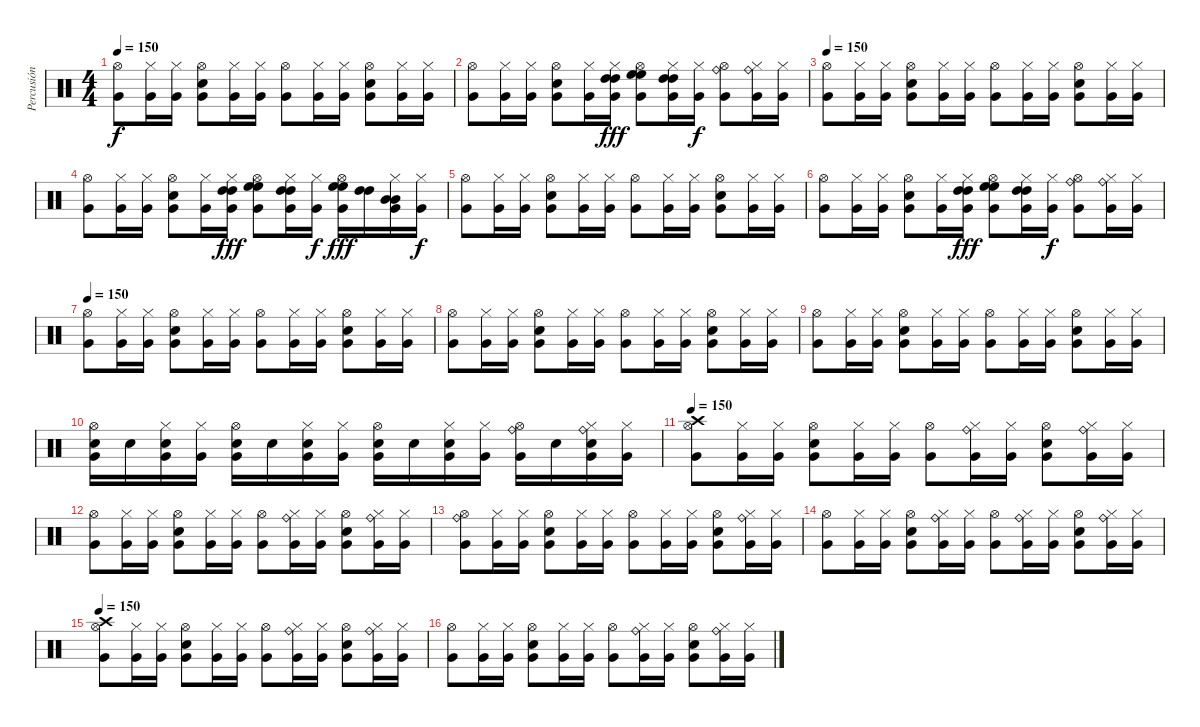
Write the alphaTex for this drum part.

\track ("Percusión" "Percusión") {instrument percussion}
\staff {score}
\articulation defaults
\ts (4 4)
\tempo 150
\clef neutral
\ks c
("Hi-Hat (open)" "Very Low Tom (hit)").8{dy f} ("Hi-Hat (closed)" "Very Low Tom (hit)").16 ("Hi-Hat (closed)" "Very Low Tom (hit)").16 ("Hi-Hat (open)" "Electric Snare (hit)" "Very Low Tom (hit)").8 ("Hi-Hat (closed)" "Very Low Tom (hit)").16 ("Hi-Hat (closed)" "Very Low Tom (hit)").16 ("Hi-Hat (open)" "Very Low Tom (hit)").8 ("Hi-Hat (closed)" "Very Low Tom (hit)").16 ("Hi-Hat (closed)" "Very Low Tom (hit)").16 ("Hi-Hat (open)" "Electric Snare (hit)" "Very Low Tom (hit)").8 ("Hi-Hat (closed)" "Very Low Tom (hit)").16 ("Hi-Hat (closed)" "Very Low Tom (hit)").16 |
("Hi-Hat (open)" "Very Low Tom (hit)").8 ("Hi-Hat (closed)" "Very Low Tom (hit)").16 ("Hi-Hat (closed)" "Very Low Tom (hit)").16 ("Hi-Hat (open)" "Electric Snare (hit)" "Very Low Tom (hit)").8 ("Hi-Hat (closed)" "Very Low Tom (hit)").16 ("Hi-Hat (closed)" "High Tom (hit)" "High Tom (hit)" "Very Low Tom (hit)").16{dy fff} ("Hi-Hat (open)" "High Floor Tom (hit)" "High Floor Tom (hit)" "Very Low Tom (hit)").8 ("Hi-Hat (closed)" "High Tom (hit)" "High Tom (hit)" "Very Low Tom (hit)").16 ("Hi-Hat (closed)" "Very Low Tom (hit)").16{dy f} ("Ride (bell)" "Hi-Hat (open)" "Very Low Tom (hit)").8 ("Ride (bell)" "Hi-Hat (closed)" "Very Low Tom (hit)").16 ("Hi-Hat (closed)" "Very Low Tom (hit)").16 |
\tempo 150
("Hi-Hat (open)" "Very Low Tom (hit)").8 ("Hi-Hat (closed)" "Very Low Tom (hit)").16 ("Hi-Hat (closed)" "Very Low Tom (hit)").16 ("Hi-Hat (open)" "Electric Snare (hit)" "Very Low Tom (hit)").8 ("Hi-Hat (closed)" "Very Low Tom (hit)").16 ("Hi-Hat (closed)" "Very Low Tom (hit)").16 ("Hi-Hat (open)" "Very Low Tom (hit)").8 ("Hi-Hat (closed)" "Very Low Tom (hit)").16 ("Hi-Hat (closed)" "Very Low Tom (hit)").16 ("Hi-Hat (open)" "Electric Snare (hit)" "Very Low Tom (hit)").8 ("Hi-Hat (closed)" "Very Low Tom (hit)").16 ("Hi-Hat (closed)" "Very Low Tom (hit)").16 |
("Hi-Hat (open)" "Very Low Tom (hit)").8 ("Hi-Hat (closed)" "Very Low Tom (hit)").16 ("Hi-Hat (closed)" "Very Low Tom (hit)").16 ("Hi-Hat (open)" "Electric Snare (hit)" "Very Low Tom (hit)").8 ("Hi-Hat (closed)" "Very Low Tom (hit)").16 ("Hi-Hat (closed)" "High Tom (hit)" "High Tom (hit)" "Very Low Tom (hit)").16{dy fff} ("Hi-Hat (open)" "High Floor Tom (hit)" "High Floor Tom (hit)" "Very Low Tom (hit)").8 ("Hi-Hat (closed)" "High Tom (hit)" "High Tom (hit)" "Very Low Tom (hit)").16 ("Hi-Hat (closed)" "Very Low Tom (hit)").16{dy f} ("Hi-Hat (open)" "High Floor Tom (hit)" "High Floor Tom (hit)" "Very Low Tom (hit)").16{dy fff} ("High Tom (hit)" "High Tom (hit)").16 ("Hi-Hat (closed)" "Mid Tom (hit)" "Mid Tom (hit)" "Very Low Tom (hit)").16 ("Hi-Hat (closed)" "Very Low Tom (hit)").16{dy f} |
("Hi-Hat (open)" "Very Low Tom (hit)").8 ("Hi-Hat (closed)" "Very Low Tom (hit)").16 ("Hi-Hat (closed)" "Very Low Tom (hit)").16 ("Hi-Hat (open)" "Electric Snare (hit)" "Very Low Tom (hit)").8 ("Hi-Hat (closed)" "Very Low Tom (hit)").16 ("Hi-Hat (closed)" "Very Low Tom (hit)").16 ("Hi-Hat (open)" "Very Low Tom (hit)").8 ("Hi-Hat (closed)" "Very Low Tom (hit)").16 ("Hi-Hat (closed)" "Very Low Tom (hit)").16 ("Hi-Hat (open)" "Electric Snare (hit)" "Very Low Tom (hit)").8 ("Hi-Hat (closed)" "Very Low Tom (hit)").16 ("Hi-Hat (closed)" "Very Low Tom (hit)").16 |
("Hi-Hat (open)" "Very Low Tom (hit)").8 ("Hi-Hat (closed)" "Very Low Tom (hit)").16 ("Hi-Hat (closed)" "Very Low Tom (hit)").16 ("Hi-Hat (open)" "Electric Snare (hit)" "Very Low Tom (hit)").8 ("Hi-Hat (closed)" "Very Low Tom (hit)").16 ("Hi-Hat (closed)" "High Tom (hit)" "High Tom (hit)" "Very Low Tom (hit)").16{dy fff} ("Hi-Hat (open)" "High Floor Tom (hit)" "High Floor Tom (hit)" "Very Low Tom (hit)").8 ("Hi-Hat (closed)" "High Tom (hit)" "High Tom (hit)" "Very Low Tom (hit)").16 ("Hi-Hat (closed)" "Very Low Tom (hit)").16{dy f} ("Ride (bell)" "Hi-Hat (open)" "Very Low Tom (hit)").8 ("Ride (bell)" "Hi-Hat (closed)" "Very Low Tom (hit)").16 ("Hi-Hat (closed)" "Very Low Tom (hit)").16 |
\tempo 150
("Hi-Hat (open)" "Very Low Tom (hit)").8 ("Hi-Hat (closed)" "Very Low Tom (hit)").16 ("Hi-Hat (closed)" "Very Low Tom (hit)").16 ("Hi-Hat (open)" "Electric Snare (hit)" "Very Low Tom (hit)").8 ("Hi-Hat (closed)" "Very Low Tom (hit)").16 ("Hi-Hat (closed)" "Very Low Tom (hit)").16 ("Hi-Hat (open)" "Very Low Tom (hit)").8 ("Hi-Hat (closed)" "Very Low Tom (hit)").16 ("Hi-Hat (closed)" "Very Low Tom (hit)").16 ("Hi-Hat (open)" "Electric Snare (hit)" "Very Low Tom (hit)").8 ("Hi-Hat (closed)" "Very Low Tom (hit)").16 ("Hi-Hat (closed)" "Very Low Tom (hit)").16 |
("Hi-Hat (open)" "Very Low Tom (hit)").8 ("Hi-Hat (closed)" "Very Low Tom (hit)").16 ("Hi-Hat (closed)" "Very Low Tom (hit)").16 ("Hi-Hat (open)" "Electric Snare (hit)" "Very Low Tom (hit)").8 ("Hi-Hat (closed)" "Very Low Tom (hit)").16 ("Hi-Hat (closed)" "Very Low Tom (hit)").16 ("Hi-Hat (open)" "Very Low Tom (hit)").8 ("Hi-Hat (closed)" "Very Low Tom (hit)").16 ("Hi-Hat (closed)" "Very Low Tom (hit)").16 ("Hi-Hat (open)" "Electric Snare (hit)" "Very Low Tom (hit)").8 ("Hi-Hat (closed)" "Very Low Tom (hit)").16 ("Hi-Hat (closed)" "Very Low Tom (hit)").16 |
("Hi-Hat (open)" "Very Low Tom (hit)").8 ("Hi-Hat (closed)" "Very Low Tom (hit)").16 ("Hi-Hat (closed)" "Very Low Tom (hit)").16 ("Hi-Hat (open)" "Electric Snare (hit)" "Very Low Tom (hit)").8 ("Hi-Hat (closed)" "Very Low Tom (hit)").16 ("Hi-Hat (closed)" "Very Low Tom (hit)").16 ("Hi-Hat (open)" "Very Low Tom (hit)").8 ("Hi-Hat (closed)" "Very Low Tom (hit)").16 ("Hi-Hat (closed)" "Very Low Tom (hit)").16 ("Hi-Hat (open)" "Electric Snare (hit)" "Very Low Tom (hit)").8 ("Hi-Hat (closed)" "Very Low Tom (hit)").16 ("Hi-Hat (closed)" "Very Low Tom (hit)").16 |
("Hi-Hat (open)" "Electric Snare (hit)" "Very Low Tom (hit)").16 "Electric Snare (hit)".16 ("Hi-Hat (closed)" "Electric Snare (hit)" "Very Low Tom (hit)").16 ("Hi-Hat (closed)" "Very Low Tom (hit)").16 ("Hi-Hat (open)" "Electric Snare (hit)" "Very Low Tom (hit)").16 "Electric Snare (hit)".16 ("Hi-Hat (closed)" "Electric Snare (hit)" "Very Low Tom (hit)").16 ("Hi-Hat (closed)" "Very Low Tom (hit)").16 ("Hi-Hat (open)" "Electric Snare (hit)" "Very Low Tom (hit)").16 "Electric Snare (hit)".16 ("Hi-Hat (closed)" "Electric Snare (hit)" "Very Low Tom (hit)").16 ("Hi-Hat (closed)" "Very Low Tom (hit)").16 ("Ride (bell)" "Hi-Hat (open)" "Very Low Tom (hit)").16 "Electric Snare (hit)".16 ("Ride (bell)" "Hi-Hat (closed)" "Electric Snare (hit)" "Very Low Tom (hit)").16 ("Hi-Hat (closed)" "Very Low Tom (hit)").16 |
\tempo 150
("Crash high (hit)" "Hi-Hat (open)" "Very Low Tom (hit)").8 ("Hi-Hat (closed)" "Very Low Tom (hit)").16 ("Hi-Hat (closed)" "Very Low Tom (hit)").16 ("Hi-Hat (open)" "Electric Snare (hit)" "Very Low Tom (hit)").8 ("Hi-Hat (closed)" "Very Low Tom (hit)").16 ("Hi-Hat (closed)" "Very Low Tom (hit)").16 ("Hi-Hat (open)" "Very Low Tom (hit)").8 ("Ride (bell)" "Hi-Hat (closed)" "Very Low Tom (hit)").16 ("Hi-Hat (closed)" "Very Low Tom (hit)").16 ("Hi-Hat (open)" "Electric Snare (hit)" "Very Low Tom (hit)").8 ("Ride (bell)" "Hi-Hat (closed)" "Very Low Tom (hit)").16 ("Hi-Hat (closed)" "Very Low Tom (hit)").16 |
("Hi-Hat (open)" "Very Low Tom (hit)").8 ("Hi-Hat (closed)" "Very Low Tom (hit)").16 ("Hi-Hat (closed)" "Very Low Tom (hit)").16 ("Hi-Hat (open)" "Electric Snare (hit)" "Very Low Tom (hit)").8 ("Hi-Hat (closed)" "Very Low Tom (hit)").16 ("Hi-Hat (closed)" "Very Low Tom (hit)").16 ("Hi-Hat (open)" "Very Low Tom (hit)").8 ("Ride (bell)" "Hi-Hat (closed)" "Very Low Tom (hit)").16 ("Hi-Hat (closed)" "Very Low Tom (hit)").16 ("Hi-Hat (open)" "Electric Snare (hit)" "Very Low Tom (hit)").8 ("Ride (bell)" "Hi-Hat (closed)" "Very Low Tom (hit)").16 ("Hi-Hat (closed)" "Very Low Tom (hit)").16 |
("Ride (bell)" "Hi-Hat (open)" "Very Low Tom (hit)").8 ("Hi-Hat (closed)" "Very Low Tom (hit)").16 ("Hi-Hat (closed)" "Very Low Tom (hit)").16 ("Hi-Hat (open)" "Electric Snare (hit)" "Very Low Tom (hit)").8 ("Hi-Hat (closed)" "Very Low Tom (hit)").16 ("Hi-Hat (closed)" "Very Low Tom (hit)").16 ("Hi-Hat (open)" "Very Low Tom (hit)").8 ("Hi-Hat (closed)" "Very Low Tom (hit)").16 ("Hi-Hat (closed)" "Very Low Tom (hit)").16 ("Hi-Hat (open)" "Electric Snare (hit)" "Very Low Tom (hit)").8 ("Ride (bell)" "Hi-Hat (closed)" "Very Low Tom (hit)").16 ("Hi-Hat (closed)" "Very Low Tom (hit)").16 |
("Hi-Hat (open)" "Very Low Tom (hit)").8 ("Hi-Hat (closed)" "Very Low Tom (hit)").16 ("Hi-Hat (closed)" "Very Low Tom (hit)").16 ("Hi-Hat (open)" "Electric Snare (hit)" "Very Low Tom (hit)").8 ("Ride (bell)" "Hi-Hat (closed)" "Very Low Tom (hit)").16 ("Hi-Hat (closed)" "Very Low Tom (hit)").16 ("Hi-Hat (open)" "Very Low Tom (hit)").8 ("Ride (bell)" "Hi-Hat (closed)" "Very Low Tom (hit)").16 ("Hi-Hat (closed)" "Very Low Tom (hit)").16 ("Hi-Hat (open)" "Electric Snare (hit)" "Very Low Tom (hit)").8 ("Ride (bell)" "Hi-Hat (closed)" "Very Low Tom (hit)").16 ("Hi-Hat (closed)" "Very Low Tom (hit)").16 |
\tempo 150
("Crash high (hit)" "Hi-Hat (open)" "Very Low Tom (hit)").8 ("Hi-Hat (closed)" "Very Low Tom (hit)").16 ("Hi-Hat (closed)" "Very Low Tom (hit)").16 ("Hi-Hat (open)" "Electric Snare (hit)" "Very Low Tom (hit)").8 ("Hi-Hat (closed)" "Very Low Tom (hit)").16 ("Hi-Hat (closed)" "Very Low Tom (hit)").16 ("Hi-Hat (open)" "Very Low Tom (hit)").8 ("Ride (bell)" "Hi-Hat (closed)" "Very Low Tom (hit)").16 ("Hi-Hat (closed)" "Very Low Tom (hit)").16 ("Hi-Hat (open)" "Electric Snare (hit)" "Very Low Tom (hit)").8 ("Ride (bell)" "Hi-Hat (closed)" "Very Low Tom (hit)").16 ("Hi-Hat (closed)" "Very Low Tom (hit)").16 |
("Hi-Hat (open)" "Very Low Tom (hit)").8 ("Hi-Hat (closed)" "Very Low Tom (hit)").16 ("Hi-Hat (closed)" "Very Low Tom (hit)").16 ("Hi-Hat (open)" "Electric Snare (hit)" "Very Low Tom (hit)").8 ("Hi-Hat (closed)" "Very Low Tom (hit)").16 ("Hi-Hat (closed)" "Very Low Tom (hit)").16 ("Hi-Hat (open)" "Very Low Tom (hit)").8 ("Ride (bell)" "Hi-Hat (closed)" "Very Low Tom (hit)").16 ("Hi-Hat (closed)" "Very Low Tom (hit)").16 ("Hi-Hat (open)" "Electric Snare (hit)" "Very Low Tom (hit)").8 ("Ride (bell)" "Hi-Hat (closed)" "Very Low Tom (hit)").16 ("Hi-Hat (closed)" "Very Low Tom (hit)").16
